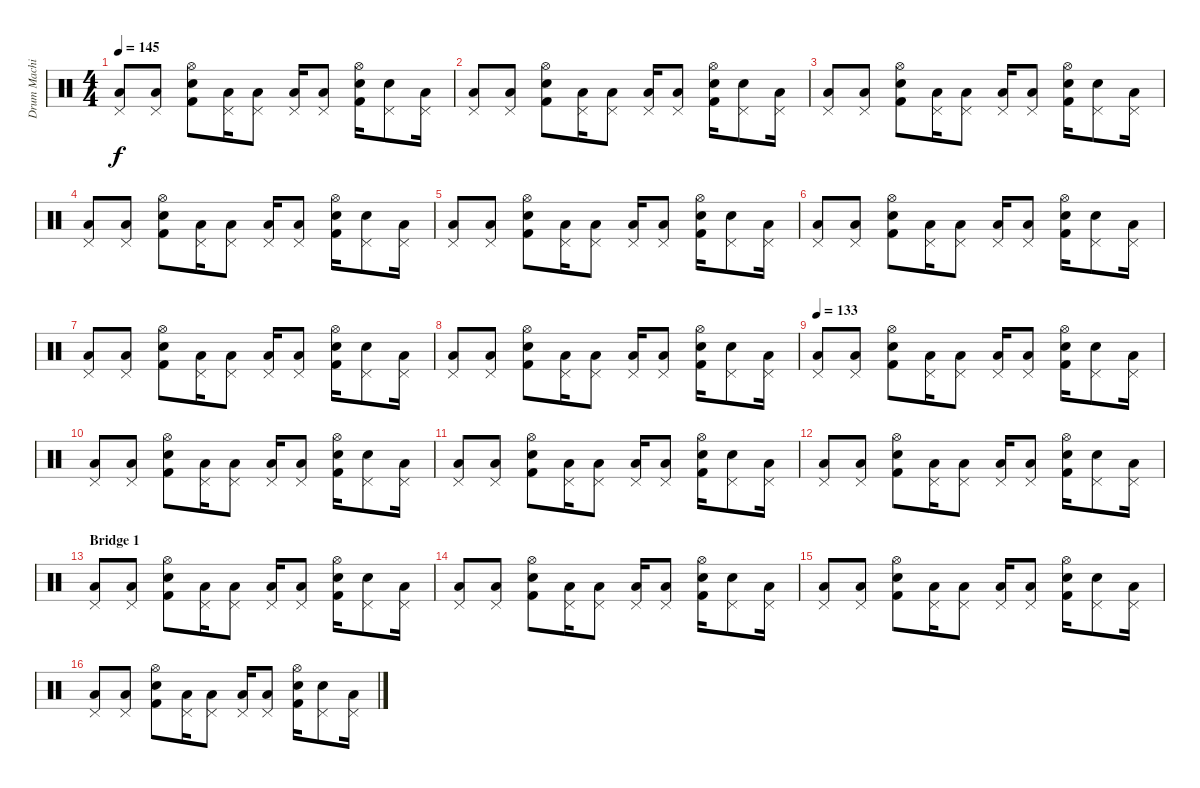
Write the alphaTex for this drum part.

\track ("Drum Machine" "Drum Machi") {instrument percussion}
\staff {score}
\articulation defaults
\ts (4 4)
\tempo 145
\clef neutral
\ks c
("Pedal Hi-Hat (hit)" "Low Tom (hit)").8{dy f} ("Pedal Hi-Hat (hit)" "Low Tom (hit)").8 ("Hi-Hat (open)" "Snare (hit) 2" "Kick (hit) 2").8 ("Pedal Hi-Hat (hit)" "Low Tom (hit)").16 ("Pedal Hi-Hat (hit)" "Low Tom (hit)").8 ("Pedal Hi-Hat (hit)" "Low Tom (hit)").16 ("Pedal Hi-Hat (hit)" "Low Tom (hit)").8 ("Hi-Hat (open)" "Snare (hit) 2" "Kick (hit) 2").16 ("Pedal Hi-Hat (hit)" "Snare (hit) 2").8 ("Pedal Hi-Hat (hit)" "Low Tom (hit)").16 |
("Pedal Hi-Hat (hit)" "Low Tom (hit)").8 ("Pedal Hi-Hat (hit)" "Low Tom (hit)").8 ("Hi-Hat (open)" "Snare (hit) 2" "Kick (hit) 2").8 ("Pedal Hi-Hat (hit)" "Low Tom (hit)").16 ("Pedal Hi-Hat (hit)" "Low Tom (hit)").8 ("Pedal Hi-Hat (hit)" "Low Tom (hit)").16 ("Pedal Hi-Hat (hit)" "Low Tom (hit)").8 ("Hi-Hat (open)" "Snare (hit) 2" "Kick (hit) 2").16 ("Pedal Hi-Hat (hit)" "Snare (hit) 2").8 ("Pedal Hi-Hat (hit)" "Low Tom (hit)").16 |
("Pedal Hi-Hat (hit)" "Low Tom (hit)").8 ("Pedal Hi-Hat (hit)" "Low Tom (hit)").8 ("Hi-Hat (open)" "Snare (hit) 2" "Kick (hit) 2").8 ("Pedal Hi-Hat (hit)" "Low Tom (hit)").16 ("Pedal Hi-Hat (hit)" "Low Tom (hit)").8 ("Pedal Hi-Hat (hit)" "Low Tom (hit)").16 ("Pedal Hi-Hat (hit)" "Low Tom (hit)").8 ("Hi-Hat (open)" "Snare (hit) 2" "Kick (hit) 2").16 ("Pedal Hi-Hat (hit)" "Snare (hit) 2").8 ("Pedal Hi-Hat (hit)" "Low Tom (hit)").16 |
("Pedal Hi-Hat (hit)" "Low Tom (hit)").8 ("Pedal Hi-Hat (hit)" "Low Tom (hit)").8 ("Hi-Hat (open)" "Snare (hit) 2" "Kick (hit) 2").8 ("Pedal Hi-Hat (hit)" "Low Tom (hit)").16 ("Pedal Hi-Hat (hit)" "Low Tom (hit)").8 ("Pedal Hi-Hat (hit)" "Low Tom (hit)").16 ("Pedal Hi-Hat (hit)" "Low Tom (hit)").8 ("Hi-Hat (open)" "Snare (hit) 2" "Kick (hit) 2").16 ("Pedal Hi-Hat (hit)" "Snare (hit) 2").8 ("Pedal Hi-Hat (hit)" "Low Tom (hit)").16 |
("Pedal Hi-Hat (hit)" "Low Tom (hit)").8 ("Pedal Hi-Hat (hit)" "Low Tom (hit)").8 ("Hi-Hat (open)" "Snare (hit) 2" "Kick (hit) 2").8 ("Pedal Hi-Hat (hit)" "Low Tom (hit)").16 ("Pedal Hi-Hat (hit)" "Low Tom (hit)").8 ("Pedal Hi-Hat (hit)" "Low Tom (hit)").16 ("Pedal Hi-Hat (hit)" "Low Tom (hit)").8 ("Hi-Hat (open)" "Snare (hit) 2" "Kick (hit) 2").16 ("Pedal Hi-Hat (hit)" "Snare (hit) 2").8 ("Pedal Hi-Hat (hit)" "Low Tom (hit)").16 |
("Pedal Hi-Hat (hit)" "Low Tom (hit)").8 ("Pedal Hi-Hat (hit)" "Low Tom (hit)").8 ("Hi-Hat (open)" "Snare (hit) 2" "Kick (hit) 2").8 ("Pedal Hi-Hat (hit)" "Low Tom (hit)").16 ("Pedal Hi-Hat (hit)" "Low Tom (hit)").8 ("Pedal Hi-Hat (hit)" "Low Tom (hit)").16 ("Pedal Hi-Hat (hit)" "Low Tom (hit)").8 ("Hi-Hat (open)" "Snare (hit) 2" "Kick (hit) 2").16 ("Pedal Hi-Hat (hit)" "Snare (hit) 2").8 ("Pedal Hi-Hat (hit)" "Low Tom (hit)").16 |
("Pedal Hi-Hat (hit)" "Low Tom (hit)").8 ("Pedal Hi-Hat (hit)" "Low Tom (hit)").8 ("Hi-Hat (open)" "Snare (hit) 2" "Kick (hit) 2").8 ("Pedal Hi-Hat (hit)" "Low Tom (hit)").16 ("Pedal Hi-Hat (hit)" "Low Tom (hit)").8 ("Pedal Hi-Hat (hit)" "Low Tom (hit)").16 ("Pedal Hi-Hat (hit)" "Low Tom (hit)").8 ("Hi-Hat (open)" "Snare (hit) 2" "Kick (hit) 2").16 ("Pedal Hi-Hat (hit)" "Snare (hit) 2").8 ("Pedal Hi-Hat (hit)" "Low Tom (hit)").16 |
("Pedal Hi-Hat (hit)" "Low Tom (hit)").8 ("Pedal Hi-Hat (hit)" "Low Tom (hit)").8 ("Hi-Hat (open)" "Snare (hit) 2" "Kick (hit) 2").8 ("Pedal Hi-Hat (hit)" "Low Tom (hit)").16 ("Pedal Hi-Hat (hit)" "Low Tom (hit)").8 ("Pedal Hi-Hat (hit)" "Low Tom (hit)").16 ("Pedal Hi-Hat (hit)" "Low Tom (hit)").8 ("Hi-Hat (open)" "Snare (hit) 2" "Kick (hit) 2").16 ("Pedal Hi-Hat (hit)" "Snare (hit) 2").8 ("Pedal Hi-Hat (hit)" "Low Tom (hit)").16 |
\tempo 133
("Pedal Hi-Hat (hit)" "Low Tom (hit)").8 ("Pedal Hi-Hat (hit)" "Low Tom (hit)").8 ("Hi-Hat (open)" "Snare (hit) 2" "Kick (hit) 2").8 ("Pedal Hi-Hat (hit)" "Low Tom (hit)").16 ("Pedal Hi-Hat (hit)" "Low Tom (hit)").8 ("Pedal Hi-Hat (hit)" "Low Tom (hit)").16 ("Pedal Hi-Hat (hit)" "Low Tom (hit)").8 ("Hi-Hat (open)" "Snare (hit) 2" "Kick (hit) 2").16 ("Pedal Hi-Hat (hit)" "Snare (hit) 2").8 ("Pedal Hi-Hat (hit)" "Low Tom (hit)").16 |
("Pedal Hi-Hat (hit)" "Low Tom (hit)").8 ("Pedal Hi-Hat (hit)" "Low Tom (hit)").8 ("Hi-Hat (open)" "Snare (hit) 2" "Kick (hit) 2").8 ("Pedal Hi-Hat (hit)" "Low Tom (hit)").16 ("Pedal Hi-Hat (hit)" "Low Tom (hit)").8 ("Pedal Hi-Hat (hit)" "Low Tom (hit)").16 ("Pedal Hi-Hat (hit)" "Low Tom (hit)").8 ("Hi-Hat (open)" "Snare (hit) 2" "Kick (hit) 2").16 ("Pedal Hi-Hat (hit)" "Snare (hit) 2").8 ("Pedal Hi-Hat (hit)" "Low Tom (hit)").16 |
("Pedal Hi-Hat (hit)" "Low Tom (hit)").8 ("Pedal Hi-Hat (hit)" "Low Tom (hit)").8 ("Hi-Hat (open)" "Snare (hit) 2" "Kick (hit) 2").8 ("Pedal Hi-Hat (hit)" "Low Tom (hit)").16 ("Pedal Hi-Hat (hit)" "Low Tom (hit)").8 ("Pedal Hi-Hat (hit)" "Low Tom (hit)").16 ("Pedal Hi-Hat (hit)" "Low Tom (hit)").8 ("Hi-Hat (open)" "Snare (hit) 2" "Kick (hit) 2").16 ("Pedal Hi-Hat (hit)" "Snare (hit) 2").8 ("Pedal Hi-Hat (hit)" "Low Tom (hit)").16 |
("Pedal Hi-Hat (hit)" "Low Tom (hit)").8 ("Pedal Hi-Hat (hit)" "Low Tom (hit)").8 ("Hi-Hat (open)" "Snare (hit) 2" "Kick (hit) 2").8 ("Pedal Hi-Hat (hit)" "Low Tom (hit)").16 ("Pedal Hi-Hat (hit)" "Low Tom (hit)").8 ("Pedal Hi-Hat (hit)" "Low Tom (hit)").16 ("Pedal Hi-Hat (hit)" "Low Tom (hit)").8 ("Hi-Hat (open)" "Snare (hit) 2" "Kick (hit) 2").16 ("Pedal Hi-Hat (hit)" "Snare (hit) 2").8 ("Pedal Hi-Hat (hit)" "Low Tom (hit)").16 |
\section ("" "Bridge 1")
("Pedal Hi-Hat (hit)" "Low Tom (hit)").8 ("Pedal Hi-Hat (hit)" "Low Tom (hit)").8 ("Hi-Hat (open)" "Snare (hit) 2" "Kick (hit) 2").8 ("Pedal Hi-Hat (hit)" "Low Tom (hit)").16 ("Pedal Hi-Hat (hit)" "Low Tom (hit)").8 ("Pedal Hi-Hat (hit)" "Low Tom (hit)").16 ("Pedal Hi-Hat (hit)" "Low Tom (hit)").8 ("Hi-Hat (open)" "Snare (hit) 2" "Kick (hit) 2").16 ("Pedal Hi-Hat (hit)" "Snare (hit) 2").8 ("Pedal Hi-Hat (hit)" "Low Tom (hit)").16 |
("Pedal Hi-Hat (hit)" "Low Tom (hit)").8 ("Pedal Hi-Hat (hit)" "Low Tom (hit)").8 ("Hi-Hat (open)" "Snare (hit) 2" "Kick (hit) 2").8 ("Pedal Hi-Hat (hit)" "Low Tom (hit)").16 ("Pedal Hi-Hat (hit)" "Low Tom (hit)").8 ("Pedal Hi-Hat (hit)" "Low Tom (hit)").16 ("Pedal Hi-Hat (hit)" "Low Tom (hit)").8 ("Hi-Hat (open)" "Snare (hit) 2" "Kick (hit) 2").16 ("Pedal Hi-Hat (hit)" "Snare (hit) 2").8 ("Pedal Hi-Hat (hit)" "Low Tom (hit)").16 |
("Pedal Hi-Hat (hit)" "Low Tom (hit)").8 ("Pedal Hi-Hat (hit)" "Low Tom (hit)").8 ("Hi-Hat (open)" "Snare (hit) 2" "Kick (hit) 2").8 ("Pedal Hi-Hat (hit)" "Low Tom (hit)").16 ("Pedal Hi-Hat (hit)" "Low Tom (hit)").8 ("Pedal Hi-Hat (hit)" "Low Tom (hit)").16 ("Pedal Hi-Hat (hit)" "Low Tom (hit)").8 ("Hi-Hat (open)" "Snare (hit) 2" "Kick (hit) 2").16 ("Pedal Hi-Hat (hit)" "Snare (hit) 2").8 ("Pedal Hi-Hat (hit)" "Low Tom (hit)").16 |
("Pedal Hi-Hat (hit)" "Low Tom (hit)").8 ("Pedal Hi-Hat (hit)" "Low Tom (hit)").8 ("Hi-Hat (open)" "Snare (hit) 2" "Kick (hit) 2").8 ("Pedal Hi-Hat (hit)" "Low Tom (hit)").16 ("Pedal Hi-Hat (hit)" "Low Tom (hit)").8 ("Pedal Hi-Hat (hit)" "Low Tom (hit)").16 ("Pedal Hi-Hat (hit)" "Low Tom (hit)").8 ("Hi-Hat (open)" "Snare (hit) 2" "Kick (hit) 2").16 ("Pedal Hi-Hat (hit)" "Snare (hit) 2").8 ("Pedal Hi-Hat (hit)" "Low Tom (hit)").16
